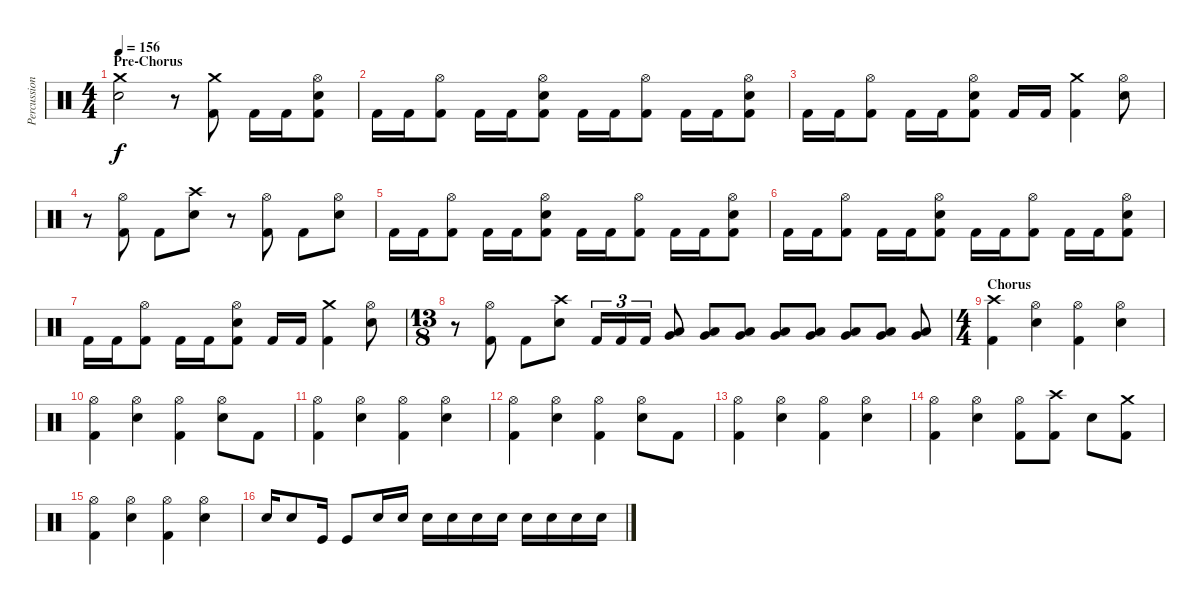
\track ("Percussion" "Percussion") {instrument percussion}
\staff {score}
\articulation defaults
\ts (4 4)
\section ("" "Pre-Chorus")
\tempo 156
\clef neutral
\ks c
("Crash medium (hit)" "Electric Snare (hit)").2{dy f} r.8 ("Crash medium (hit)" "Kick (hit) 2").8 "Kick (hit) 2".16 "Kick (hit) 2".16 ("Hi-Hat (open)" "Electric Snare (hit)" "Kick (hit) 2").8 |
"Kick (hit) 2".16 "Kick (hit) 2".16 ("Hi-Hat (open)" "Kick (hit) 2").8 "Kick (hit) 2".16 "Kick (hit) 2".16 ("Hi-Hat (open)" "Electric Snare (hit)" "Kick (hit) 2").8 "Kick (hit) 2".16 "Kick (hit) 2".16 ("Hi-Hat (open)" "Kick (hit) 2").8 "Kick (hit) 2".16 "Kick (hit) 2".16 ("Hi-Hat (open)" "Electric Snare (hit)" "Kick (hit) 2").8 |
"Kick (hit) 2".16 "Kick (hit) 2".16 ("Hi-Hat (open)" "Kick (hit) 2").8 "Kick (hit) 2".16 "Kick (hit) 2".16 ("Hi-Hat (open)" "Electric Snare (hit)" "Kick (hit) 2").8 "Kick (hit) 2".16 "Kick (hit) 2".16 ("Crash medium (hit)" "Kick (hit) 2").4 ("Hi-Hat (open)" "Electric Snare (hit)").8 |
r.8 ("Hi-Hat (open)" "Kick (hit) 2").8 "Kick (hit) 2".8 ("Crash high (hit)" "Electric Snare (hit)").8 r.8 ("Hi-Hat (open)" "Kick (hit) 2").8 "Kick (hit) 2".8 ("Hi-Hat (open)" "Electric Snare (hit)").8 |
"Kick (hit) 2".16 "Kick (hit) 2".16 ("Hi-Hat (open)" "Kick (hit) 2").8 "Kick (hit) 2".16 "Kick (hit) 2".16 ("Hi-Hat (open)" "Electric Snare (hit)" "Kick (hit) 2").8 "Kick (hit) 2".16 "Kick (hit) 2".16 ("Hi-Hat (open)" "Kick (hit) 2").8 "Kick (hit) 2".16 "Kick (hit) 2".16 ("Hi-Hat (open)" "Electric Snare (hit)" "Kick (hit) 2").8 |
"Kick (hit) 2".16 "Kick (hit) 2".16 ("Hi-Hat (open)" "Kick (hit) 2").8 "Kick (hit) 2".16 "Kick (hit) 2".16 ("Hi-Hat (open)" "Electric Snare (hit)" "Kick (hit) 2").8 "Kick (hit) 2".16 "Kick (hit) 2".16 ("Hi-Hat (open)" "Kick (hit) 2").8 "Kick (hit) 2".16 "Kick (hit) 2".16 ("Hi-Hat (open)" "Electric Snare (hit)" "Kick (hit) 2").8 |
"Kick (hit) 2".16 "Kick (hit) 2".16 ("Hi-Hat (open)" "Kick (hit) 2").8 "Kick (hit) 2".16 "Kick (hit) 2".16 ("Hi-Hat (open)" "Electric Snare (hit)" "Kick (hit) 2").8 "Kick (hit) 2".16 "Kick (hit) 2".16 ("Crash medium (hit)" "Kick (hit) 2").4 ("Hi-Hat (open)" "Electric Snare (hit)").8 |
\ts (13 8)
r.8 ("Hi-Hat (open)" "Kick (hit) 2").8 "Kick (hit) 2".8 ("Crash high (hit)" "Electric Snare (hit)").8 "Kick (hit) 2".16{tu (3 2)} "Kick (hit) 2".16{tu (3 2)} "Kick (hit) 2".16{tu (3 2)} ("Low Floor Tom (hit)" "Very Low Tom (hit)").8 ("Low Floor Tom (hit)" "Very Low Tom (hit)").8 ("Low Floor Tom (hit)" "Very Low Tom (hit)").8 ("Low Floor Tom (hit)" "Very Low Tom (hit)").8 ("Low Floor Tom (hit)" "Very Low Tom (hit)").8 ("Low Floor Tom (hit)" "Very Low Tom (hit)").8 ("Low Floor Tom (hit)" "Very Low Tom (hit)").8 ("Low Floor Tom (hit)" "Very Low Tom (hit)").8 |
\ts (4 4)
\section ("" "Chorus")
("Crash high (hit)" "Kick (hit) 2").4 ("Hi-Hat (open)" "Electric Snare (hit)").4 ("Hi-Hat (open)" "Kick (hit) 2").4 ("Hi-Hat (open)" "Electric Snare (hit)").4 |
("Hi-Hat (open)" "Kick (hit) 2").4 ("Hi-Hat (open)" "Electric Snare (hit)").4 ("Hi-Hat (open)" "Kick (hit) 2").4 ("Hi-Hat (open)" "Electric Snare (hit)").8 "Kick (hit) 2".8 |
("Hi-Hat (open)" "Kick (hit) 2").4 ("Hi-Hat (open)" "Electric Snare (hit)").4 ("Hi-Hat (open)" "Kick (hit) 2").4 ("Hi-Hat (open)" "Electric Snare (hit)").4 |
("Hi-Hat (open)" "Kick (hit) 2").4 ("Hi-Hat (open)" "Electric Snare (hit)").4 ("Hi-Hat (open)" "Kick (hit) 2").4 ("Hi-Hat (open)" "Electric Snare (hit)").8 "Kick (hit) 2".8 |
("Hi-Hat (open)" "Kick (hit) 2").4 ("Hi-Hat (open)" "Electric Snare (hit)").4 ("Hi-Hat (open)" "Kick (hit) 2").4 ("Hi-Hat (open)" "Electric Snare (hit)").4 |
("Hi-Hat (open)" "Kick (hit) 2").4 ("Hi-Hat (open)" "Electric Snare (hit)").4 ("Hi-Hat (open)" "Kick (hit) 2").8 ("Crash high (hit)" "Kick (hit) 2").8 "Electric Snare (hit)".8 ("Crash medium (hit)" "Kick (hit) 2").8 |
("Hi-Hat (open)" "Kick (hit) 2").4 ("Hi-Hat (open)" "Electric Snare (hit)").4 ("Hi-Hat (open)" "Kick (hit) 2").4 ("Hi-Hat (open)" "Electric Snare (hit)").4 |
"Electric Snare (hit)".16 "Electric Snare (hit)".8 "Kick (hit)".16 "Kick (hit)".8 "Electric Snare (hit)".16 "Electric Snare (hit)".16 "Electric Snare (hit)".16 "Electric Snare (hit)".16 "Electric Snare (hit)".16 "Electric Snare (hit)".16 "Electric Snare (hit)".16 "Electric Snare (hit)".16 "Electric Snare (hit)".16 "Electric Snare (hit)".16
